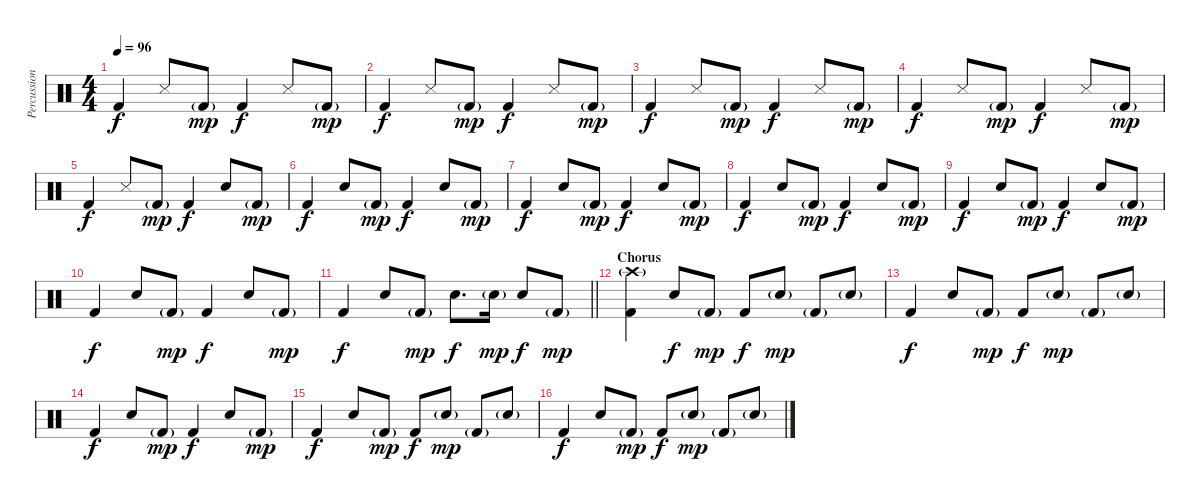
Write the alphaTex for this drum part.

\track ("Percussion" "Percussion") {instrument percussion}
\staff {score}
\articulation defaults
\ts (4 4)
\tempo 96
\clef neutral
\ks c "Kick (hit) 2".4{dy f} "Snare (side stick) 3".8 "Kick (hit) 2"{g}.8{dy mp} "Kick (hit) 2".4{dy f} "Snare (side stick) 3".8 "Kick (hit) 2"{g}.8{dy mp}
|
"Kick (hit) 2".4{dy f} "Snare (side stick) 3".8 "Kick (hit) 2"{g}.8{dy mp} "Kick (hit) 2".4{dy f} "Snare (side stick) 3".8 "Kick (hit) 2"{g}.8{dy mp} |
"Kick (hit) 2".4{dy f} "Snare (side stick) 3".8 "Kick (hit) 2"{g}.8{dy mp} "Kick (hit) 2".4{dy f} "Snare (side stick) 3".8 "Kick (hit) 2"{g}.8{dy mp} |
"Kick (hit) 2".4{dy f} "Snare (side stick) 3".8 "Kick (hit) 2"{g}.8{dy mp} "Kick (hit) 2".4{dy f} "Snare (side stick) 3".8 "Kick (hit) 2"{g}.8{dy mp} |
"Kick (hit) 2".4{dy f} "Snare (side stick) 3".8 "Kick (hit) 2"{g}.8{dy mp} "Kick (hit) 2".4{dy f} "Snare (hit) 2".8 "Kick (hit) 2"{g}.8{dy mp} |
"Kick (hit) 2".4{dy f} "Snare (hit) 2".8 "Kick (hit) 2"{g}.8{dy mp} "Kick (hit) 2".4{dy f} "Snare (hit) 2".8 "Kick (hit) 2"{g}.8{dy mp} |
"Kick (hit) 2".4{dy f} "Snare (hit) 2".8 "Kick (hit) 2"{g}.8{dy mp} "Kick (hit) 2".4{dy f} "Snare (hit) 2".8 "Kick (hit) 2"{g}.8{dy mp} |
"Kick (hit) 2".4{dy f} "Snare (hit) 2".8 "Kick (hit) 2"{g}.8{dy mp} "Kick (hit) 2".4{dy f} "Snare (hit) 2".8 "Kick (hit) 2"{g}.8{dy mp} |
"Kick (hit) 2".4{dy f} "Snare (hit) 2".8 "Kick (hit) 2"{g}.8{dy mp} "Kick (hit) 2".4{dy f} "Snare (hit) 2".8 "Kick (hit) 2"{g}.8{dy mp} |
"Kick (hit) 2".4{dy f} "Snare (hit) 2".8 "Kick (hit) 2"{g}.8{dy mp} "Kick (hit) 2".4{dy f} "Snare (hit) 2".8 "Kick (hit) 2"{g}.8{dy mp} |
\barLineRight lightlight "Kick (hit) 2".4{dy f} "Snare (hit) 2".8 "Kick (hit) 2"{g}.8{dy mp} "Snare (hit) 2".8{d dy f} "Snare (hit) 2"{g}.16{dy mp} "Snare (hit) 2".8{dy f} "Kick (hit) 2"{g}.8{dy mp}
|
\section ("" "Chorus")
("Crash high (hit)"{g} "Kick (hit) 2").4 "Snare (hit) 2".8{dy f} "Kick (hit) 2"{g}.8{dy mp} "Kick (hit) 2".8{dy f} "Snare (hit) 2"{g}.8{dy mp} "Kick (hit) 2"{g}.8 "Snare (hit) 2"{g}.8 |
"Kick (hit) 2".4{dy f} "Snare (hit) 2".8 "Kick (hit) 2"{g}.8{dy mp} "Kick (hit) 2".8{dy f} "Snare (hit) 2"{g}.8{dy mp} "Kick (hit) 2"{g}.8 "Snare (hit) 2"{g}.8 |
"Kick (hit) 2".4{dy f} "Snare (hit) 2".8 "Kick (hit) 2"{g}.8{dy mp} "Kick (hit) 2".4{dy f} "Snare (hit) 2".8 "Kick (hit) 2"{g}.8{dy mp} |
"Kick (hit) 2".4{dy f} "Snare (hit) 2".8 "Kick (hit) 2"{g}.8{dy mp} "Kick (hit) 2".8{dy f} "Snare (hit) 2"{g}.8{dy mp} "Kick (hit) 2"{g}.8 "Snare (hit) 2"{g}.8 |
"Kick (hit) 2".4{dy f} "Snare (hit) 2".8 "Kick (hit) 2"{g}.8{dy mp} "Kick (hit) 2".8{dy f} "Snare (hit) 2"{g}.8{dy mp} "Kick (hit) 2"{g}.8 "Snare (hit) 2"{g}.8
